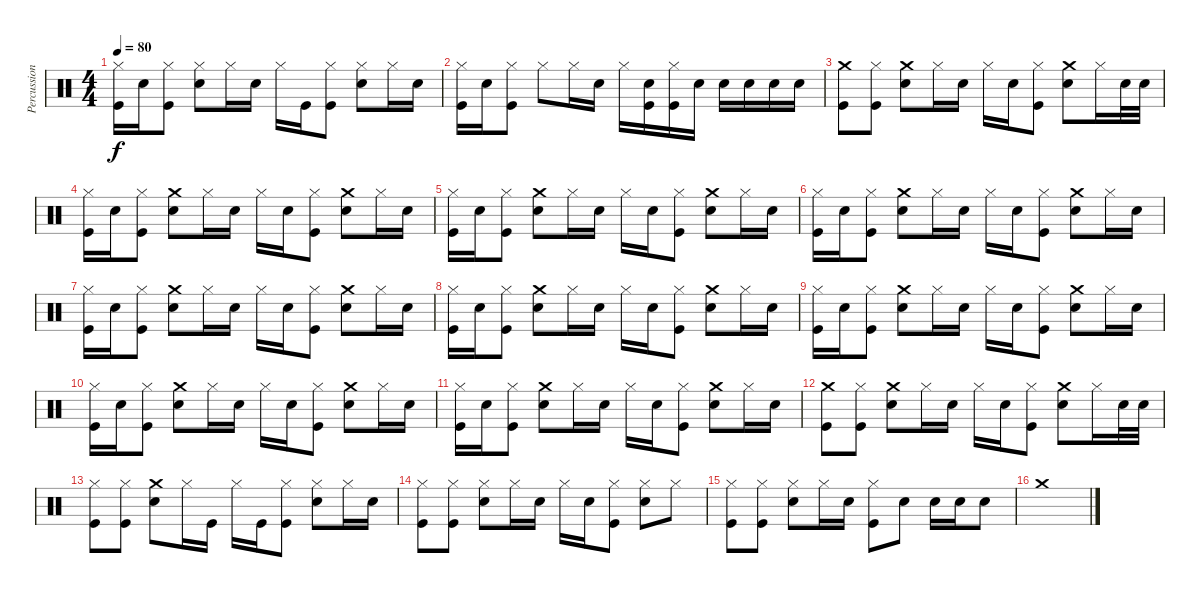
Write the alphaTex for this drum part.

\track ("Percussion" "Percussion") {instrument percussion}
\staff {score}
\articulation defaults
\ts (4 4)
\tempo 80
\clef neutral
\ks c
("Hi-Hat (closed)" "Kick (hit)").16{dy f} "Snare (hit) 2".16 ("Hi-Hat (closed)" "Kick (hit)").8 ("Hi-Hat (closed)" "Snare (hit) 2").8 "Hi-Hat (closed)".16 "Snare (hit) 2".16 "Hi-Hat (closed)".16 "Kick (hit)".16 ("Hi-Hat (closed)" "Kick (hit)").8 ("Hi-Hat (closed)" "Snare (hit) 2").8 "Hi-Hat (closed)".16 "Snare (hit) 2".16 |
("Hi-Hat (closed)" "Kick (hit)").16 "Snare (hit) 2".16 ("Hi-Hat (closed)" "Kick (hit)").8 "Hi-Hat (closed)".8 "Hi-Hat (closed)".16 "Snare (hit) 2".16 "Hi-Hat (closed)".16 ("Snare (hit) 2" "Kick (hit)").16 ("Hi-Hat (closed)" "Kick (hit)").16 "Snare (hit) 2".16 "Snare (hit) 2".16 "Snare (hit) 2".16 "Snare (hit) 2".16 "Snare (hit) 2".16 |
("Crash medium (hit)" "Kick (hit)").8 ("Hi-Hat (closed)" "Kick (hit)").8 ("Crash medium (hit)" "Snare (hit) 2").8 "Hi-Hat (closed)".16 "Snare (hit) 2".16 "Hi-Hat (closed)".16 "Snare (hit) 2".16 ("Hi-Hat (closed)" "Kick (hit)").8 ("Crash medium (hit)" "Snare (hit) 2").8 "Hi-Hat (closed)".16 "Snare (hit) 2".32 "Snare (hit) 2".32 |
("Hi-Hat (closed)" "Kick (hit)").16 "Snare (hit) 2".16 ("Hi-Hat (closed)" "Kick (hit)").8 ("Crash medium (hit)" "Snare (hit) 2").8 "Hi-Hat (closed)".16 "Snare (hit) 2".16 "Hi-Hat (closed)".16 "Snare (hit) 2".16 ("Hi-Hat (closed)" "Kick (hit)").8 ("Crash medium (hit)" "Snare (hit) 2").8 "Hi-Hat (closed)".16 "Snare (hit) 2".16 |
("Hi-Hat (closed)" "Kick (hit)").16 "Snare (hit) 2".16 ("Hi-Hat (closed)" "Kick (hit)").8 ("Crash medium (hit)" "Snare (hit) 2").8 "Hi-Hat (closed)".16 "Snare (hit) 2".16 "Hi-Hat (closed)".16 "Snare (hit) 2".16 ("Hi-Hat (closed)" "Kick (hit)").8 ("Crash medium (hit)" "Snare (hit) 2").8 "Hi-Hat (closed)".16 "Snare (hit) 2".16 |
("Hi-Hat (closed)" "Kick (hit)").16 "Snare (hit) 2".16 ("Hi-Hat (closed)" "Kick (hit)").8 ("Crash medium (hit)" "Snare (hit) 2").8 "Hi-Hat (closed)".16 "Snare (hit) 2".16 "Hi-Hat (closed)".16 "Snare (hit) 2".16 ("Hi-Hat (closed)" "Kick (hit)").8 ("Crash medium (hit)" "Snare (hit) 2").8 "Hi-Hat (closed)".16 "Snare (hit) 2".16 |
("Hi-Hat (closed)" "Kick (hit)").16 "Snare (hit) 2".16 ("Hi-Hat (closed)" "Kick (hit)").8 ("Crash medium (hit)" "Snare (hit) 2").8 "Hi-Hat (closed)".16 "Snare (hit) 2".16 "Hi-Hat (closed)".16 "Snare (hit) 2".16 ("Hi-Hat (closed)" "Kick (hit)").8 ("Crash medium (hit)" "Snare (hit) 2").8 "Hi-Hat (closed)".16 "Snare (hit) 2".16 |
("Hi-Hat (closed)" "Kick (hit)").16 "Snare (hit) 2".16 ("Hi-Hat (closed)" "Kick (hit)").8 ("Crash medium (hit)" "Snare (hit) 2").8 "Hi-Hat (closed)".16 "Snare (hit) 2".16 "Hi-Hat (closed)".16 "Snare (hit) 2".16 ("Hi-Hat (closed)" "Kick (hit)").8 ("Crash medium (hit)" "Snare (hit) 2").8 "Hi-Hat (closed)".16 "Snare (hit) 2".16 |
("Hi-Hat (closed)" "Kick (hit)").16 "Snare (hit) 2".16 ("Hi-Hat (closed)" "Kick (hit)").8 ("Crash medium (hit)" "Snare (hit) 2").8 "Hi-Hat (closed)".16 "Snare (hit) 2".16 "Hi-Hat (closed)".16 "Snare (hit) 2".16 ("Hi-Hat (closed)" "Kick (hit)").8 ("Crash medium (hit)" "Snare (hit) 2").8 "Hi-Hat (closed)".16 "Snare (hit) 2".16 |
("Hi-Hat (closed)" "Kick (hit)").16 "Snare (hit) 2".16 ("Hi-Hat (closed)" "Kick (hit)").8 ("Crash medium (hit)" "Snare (hit) 2").8 "Hi-Hat (closed)".16 "Snare (hit) 2".16 "Hi-Hat (closed)".16 "Snare (hit) 2".16 ("Hi-Hat (closed)" "Kick (hit)").8 ("Crash medium (hit)" "Snare (hit) 2").8 "Hi-Hat (closed)".16 "Snare (hit) 2".16 |
("Hi-Hat (closed)" "Kick (hit)").16 "Snare (hit) 2".16 ("Hi-Hat (closed)" "Kick (hit)").8 ("Crash medium (hit)" "Snare (hit) 2").8 "Hi-Hat (closed)".16 "Snare (hit) 2".16 "Hi-Hat (closed)".16 "Snare (hit) 2".16 ("Hi-Hat (closed)" "Kick (hit)").8 ("Crash medium (hit)" "Snare (hit) 2").8 "Hi-Hat (closed)".16 "Snare (hit) 2".16 |
("Crash medium (hit)" "Kick (hit)").8 ("Hi-Hat (closed)" "Kick (hit)").8 ("Crash medium (hit)" "Snare (hit) 2").8 "Hi-Hat (closed)".16 "Snare (hit) 2".16 "Hi-Hat (closed)".16 "Snare (hit) 2".16 ("Hi-Hat (closed)" "Kick (hit)").8 ("Crash medium (hit)" "Snare (hit) 2").8 "Hi-Hat (closed)".16 "Snare (hit) 2".32 "Snare (hit) 2".32 |
("Hi-Hat (closed)" "Kick (hit)").8 ("Hi-Hat (closed)" "Kick (hit)").8 ("Crash medium (hit)" "Snare (hit) 2").8 "Hi-Hat (closed)".16 "Kick (hit)".16 "Hi-Hat (closed)".16 "Kick (hit)".16 ("Hi-Hat (closed)" "Kick (hit)").8 ("Hi-Hat (closed)" "Snare (hit) 2").8 "Hi-Hat (closed)".16 "Snare (hit) 2".16 |
("Hi-Hat (closed)" "Kick (hit)").8 ("Hi-Hat (closed)" "Kick (hit)").8 ("Hi-Hat (closed)" "Snare (hit) 2").8 "Hi-Hat (closed)".16 "Snare (hit) 2".16 "Hi-Hat (closed)".16 "Snare (hit) 2".16 ("Hi-Hat (closed)" "Kick (hit)").8 ("Hi-Hat (closed)" "Snare (hit) 2").8 "Hi-Hat (closed)".8 |
("Hi-Hat (closed)" "Kick (hit)").8 ("Hi-Hat (closed)" "Kick (hit)").8 ("Hi-Hat (closed)" "Snare (hit) 2").8 "Hi-Hat (closed)".16 "Snare (hit) 2".16 ("Hi-Hat (closed)" "Kick (hit)").8 "Snare (hit) 2".8 "Snare (hit) 2".16 "Snare (hit) 2".16 "Snare (hit) 2".8 |
"Crash medium (hit)".1
